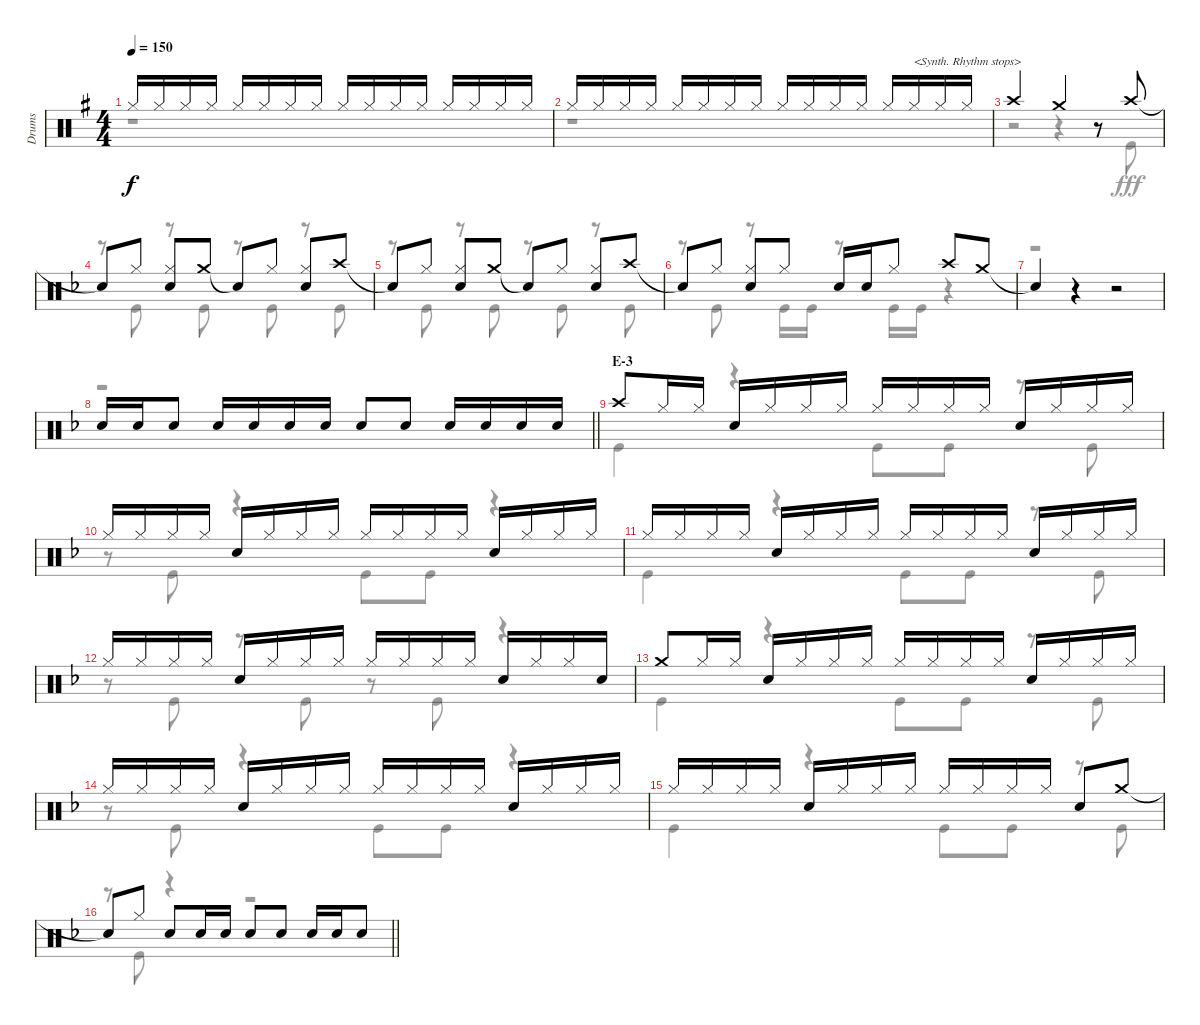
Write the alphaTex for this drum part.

\track ("Drums" "Drums") {instrument percussion}
\staff {score}
\articulation defaults
\voice
\ts (4 4)
\tempo 150
\clef neutral
\ks g "Hi-Hat (closed)".16{dy f} "Hi-Hat (closed)".16 "Hi-Hat (closed)".16 "Hi-Hat (closed)".16 "Hi-Hat (closed)".16 "Hi-Hat (closed)".16 "Hi-Hat (closed)".16 "Hi-Hat (closed)".16 "Hi-Hat (closed)".16 "Hi-Hat (closed)".16 "Hi-Hat (closed)".16 "Hi-Hat (closed)".16 "Hi-Hat (closed)".16 "Hi-Hat (closed)".16 "Hi-Hat (closed)".16 "Hi-Hat (closed)".16
|
"Hi-Hat (closed)".16 "Hi-Hat (closed)".16 "Hi-Hat (closed)".16 "Hi-Hat (closed)".16 "Hi-Hat (closed)".16 "Hi-Hat (closed)".16 "Hi-Hat (closed)".16 "Hi-Hat (closed)".16 "Hi-Hat (closed)".16 "Hi-Hat (closed)".16 "Hi-Hat (closed)".16 "Hi-Hat (closed)".16 "Hi-Hat (closed)".16 "Hi-Hat (closed)".16{txt "<Synth. Rhythm stops>"} "Hi-Hat (closed)".16 "Hi-Hat (closed)".16 |
"Crash high (hit)".2 "Crash medium (hit)".4 r.8 "Crash high (hit)".8 |
\ks f "Snare (hit)"{t}.8 "Hi-Hat (closed)".8
("Hi-Hat (closed)" "Snare (hit) 2").8 "Crash medium (hit)".8 "Snare (hit)"{t}.8 "Hi-Hat (closed)".8 ("Hi-Hat (closed)" "Snare (hit) 2").8 "Crash high (hit)".8 |
"Snare (hit)"{t}.8 "Hi-Hat (closed)".8 ("Hi-Hat (closed)" "Snare (hit) 2").8 "Crash medium (hit)".8 "Snare (hit)"{t}.8 "Hi-Hat (closed)".8 ("Hi-Hat (closed)" "Snare (hit) 2").8 "Crash high (hit)".8 |
"Snare (hit)"{t}.8 "Hi-Hat (closed)".8 ("Hi-Hat (closed)" "Snare (hit) 2").8 "Hi-Hat (closed)".8 "Snare (hit) 2".16 "Snare (hit) 2".16 "Hi-Hat (closed)".8 "Crash high (hit)".8 "Crash medium (hit)".8 |
"Snare (hit)"{t}.4 r.4 r.2 |
\barLineRight lightlight "Snare (hit) 2".16 "Snare (hit) 2".16 "Snare (hit) 2".8 "Snare (hit) 2".16 "Snare (hit) 2".16 "Snare (hit) 2".16 "Snare (hit) 2".16 "Snare (hit) 2".8 "Snare (hit) 2".8 "Snare (hit) 2".16 "Snare (hit) 2".16 "Snare (hit) 2".16 "Snare (hit) 2".16
|
\section ("" "E-3")
"Crash high (hit)".8 "Hi-Hat (closed)".16 "Hi-Hat (closed)".16 "Snare (hit) 2".16 "Hi-Hat (closed)".16 "Hi-Hat (closed)".16 "Hi-Hat (closed)".16 "Hi-Hat (closed)".16 "Hi-Hat (closed)".16 "Hi-Hat (closed)".16 "Hi-Hat (closed)".16 "Snare (hit) 2".16 "Hi-Hat (closed)".16 "Hi-Hat (closed)".16 "Hi-Hat (closed)".16 |
"Hi-Hat (closed)".16 "Hi-Hat (closed)".16 "Hi-Hat (closed)".16 "Hi-Hat (closed)".16 "Snare (hit) 2".16 "Hi-Hat (closed)".16 "Hi-Hat (closed)".16 "Hi-Hat (closed)".16 "Hi-Hat (closed)".16 "Hi-Hat (closed)".16 "Hi-Hat (closed)".16 "Hi-Hat (closed)".16 "Snare (hit) 2".16 "Hi-Hat (closed)".16 "Hi-Hat (closed)".16 "Hi-Hat (closed)".16 |
"Hi-Hat (closed)".16 "Hi-Hat (closed)".16 "Hi-Hat (closed)".16 "Hi-Hat (closed)".16 "Snare (hit) 2".16 "Hi-Hat (closed)".16 "Hi-Hat (closed)".16 "Hi-Hat (closed)".16 "Hi-Hat (closed)".16 "Hi-Hat (closed)".16 "Hi-Hat (closed)".16 "Hi-Hat (closed)".16 "Snare (hit) 2".16 "Hi-Hat (closed)".16 "Hi-Hat (closed)".16 "Hi-Hat (closed)".16 |
"Hi-Hat (closed)".16 "Hi-Hat (closed)".16 "Hi-Hat (closed)".16 "Hi-Hat (closed)".16 "Snare (hit) 2".16 "Hi-Hat (closed)".16 "Hi-Hat (closed)".16 "Hi-Hat (closed)".16 "Hi-Hat (closed)".16 "Hi-Hat (closed)".16 "Hi-Hat (closed)".16 "Hi-Hat (closed)".16 "Snare (hit) 2".16 "Hi-Hat (closed)".16 "Hi-Hat (closed)".16 "Snare (hit) 2".16 |
"Crash medium (hit)".8 "Hi-Hat (closed)".16 "Hi-Hat (closed)".16 "Snare (hit) 2".16 "Hi-Hat (closed)".16 "Hi-Hat (closed)".16 "Hi-Hat (closed)".16 "Hi-Hat (closed)".16 "Hi-Hat (closed)".16 "Hi-Hat (closed)".16 "Hi-Hat (closed)".16 "Snare (hit) 2".16 "Hi-Hat (closed)".16 "Hi-Hat (closed)".16 "Hi-Hat (closed)".16 |
"Hi-Hat (closed)".16 "Hi-Hat (closed)".16 "Hi-Hat (closed)".16 "Hi-Hat (closed)".16 "Snare (hit) 2".16 "Hi-Hat (closed)".16 "Hi-Hat (closed)".16 "Hi-Hat (closed)".16 "Hi-Hat (closed)".16 "Hi-Hat (closed)".16 "Hi-Hat (closed)".16 "Hi-Hat (closed)".16 "Snare (hit) 2".16 "Hi-Hat (closed)".16 "Hi-Hat (closed)".16 "Hi-Hat (closed)".16 |
"Hi-Hat (closed)".16 "Hi-Hat (closed)".16 "Hi-Hat (closed)".16 "Hi-Hat (closed)".16 "Snare (hit) 2".16 "Hi-Hat (closed)".16 "Hi-Hat (closed)".16 "Hi-Hat (closed)".16 "Hi-Hat (closed)".16 "Hi-Hat (closed)".16 "Hi-Hat (closed)".16 "Hi-Hat (closed)".16 "Snare (hit) 2".8 "Crash medium (hit)".8 |
\barLineRight lightlight "Snare (hit)"{t}.8 "Hi-Hat (closed)".8 "Snare (hit) 2".8 "Snare (hit) 2".16 "Snare (hit) 2".16 "Snare (hit) 2".8 "Snare (hit) 2".8 "Snare (hit) 2".16 "Snare (hit) 2".16 "Snare (hit) 2".8
\voice
\clef neutral
\ottava regular
\simile none
\ks g
r.1{dy fff} |
r.1 |
r.2 r.4 r.8 "Kick (hit)".8 |
\ks f
r.8 "Kick (hit)".8 r.8 "Kick (hit)".8 r.8 "Kick (hit)".8 r.8 "Kick (hit)".8 |
r.8 "Kick (hit)".8 r.8 "Kick (hit)".8 r.8 "Kick (hit)".8 r.8 "Kick (hit)".8 |
r.8 "Kick (hit)".8 r.8 "Kick (hit)".16 "Kick (hit)".16 r.8 "Kick (hit)".16 "Kick (hit)".16 r.4 |
r.1 |
\barLineRight lightlight
r.1 |
"Kick (hit)".4 r.4 "Kick (hit)".8 "Kick (hit)".8 r.8 "Kick (hit)".8 |
r.8 "Kick (hit)".8 r.4 "Kick (hit)".8 "Kick (hit)".8 r.4 |
"Kick (hit)".4 r.4 "Kick (hit)".8 "Kick (hit)".8 r.8 "Kick (hit)".8 |
r.8 "Kick (hit)".8 r.8 "Kick (hit)".8 r.8 "Kick (hit)".8 r.4 |
"Kick (hit)".4 r.4 "Kick (hit)".8 "Kick (hit)".8 r.8 "Kick (hit)".8 |
r.8 "Kick (hit)".8 r.4 "Kick (hit)".8 "Kick (hit)".8 r.4 |
"Kick (hit)".4 r.4 "Kick (hit)".8 "Kick (hit)".8 r.8 "Kick (hit)".8 |
\barLineRight lightlight
r.8 "Kick (hit)".8 r.4 r.2
